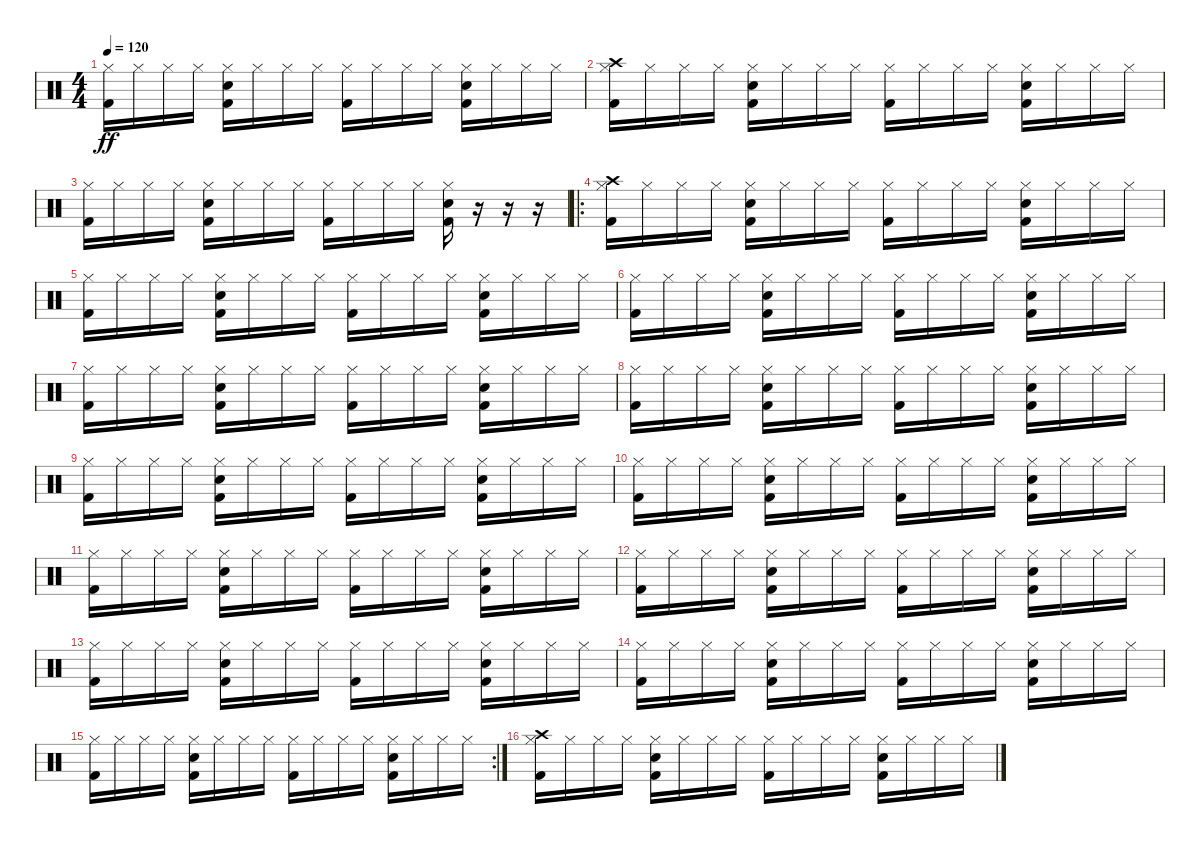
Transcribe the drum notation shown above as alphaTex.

\track "" {instrument percussion}
\staff {score}
\articulation defaults
\ts (4 4)
\tempo 120
\clef neutral
\ks c
("Hi-Hat (closed)" "Kick (hit) 2").16{dy ff} "Hi-Hat (closed)".16 "Hi-Hat (closed)".16 "Hi-Hat (closed)".16 ("Hi-Hat (closed)" "Electric Snare (hit)" "Kick (hit) 2").16 "Hi-Hat (closed)".16 "Hi-Hat (closed)".16 "Hi-Hat (closed)".16 ("Hi-Hat (closed)" "Kick (hit) 2").16 "Hi-Hat (closed)".16 "Hi-Hat (closed)".16 "Hi-Hat (closed)".16 ("Hi-Hat (closed)" "Electric Snare (hit)" "Kick (hit) 2").16 "Hi-Hat (closed)".16 "Hi-Hat (closed)".16 "Hi-Hat (closed)".16 |
("Crash high (hit)" "Hi-Hat (closed)" "Kick (hit) 2").16 "Hi-Hat (closed)".16 "Hi-Hat (closed)".16 "Hi-Hat (closed)".16 ("Hi-Hat (closed)" "Electric Snare (hit)" "Kick (hit) 2").16 "Hi-Hat (closed)".16 "Hi-Hat (closed)".16 "Hi-Hat (closed)".16 ("Hi-Hat (closed)" "Kick (hit) 2").16 "Hi-Hat (closed)".16 "Hi-Hat (closed)".16 "Hi-Hat (closed)".16 ("Hi-Hat (closed)" "Electric Snare (hit)" "Kick (hit) 2").16 "Hi-Hat (closed)".16 "Hi-Hat (closed)".16 "Hi-Hat (closed)".16 |
("Hi-Hat (closed)" "Kick (hit) 2").16 "Hi-Hat (closed)".16 "Hi-Hat (closed)".16 "Hi-Hat (closed)".16 ("Hi-Hat (closed)" "Electric Snare (hit)" "Kick (hit) 2").16 "Hi-Hat (closed)".16 "Hi-Hat (closed)".16 "Hi-Hat (closed)".16 ("Hi-Hat (closed)" "Kick (hit) 2").16 "Hi-Hat (closed)".16 "Hi-Hat (closed)".16 "Hi-Hat (closed)".16 ("Hi-Hat (closed)" "Electric Snare (hit)" "Kick (hit) 2").16 r.16 r.16 r.16 |
\ro
("Crash high (hit)" "Hi-Hat (closed)" "Kick (hit) 2").16 "Hi-Hat (closed)".16 "Hi-Hat (closed)".16 "Hi-Hat (closed)".16 ("Hi-Hat (closed)" "Electric Snare (hit)" "Kick (hit) 2").16 "Hi-Hat (closed)".16 "Hi-Hat (closed)".16 "Hi-Hat (closed)".16 ("Hi-Hat (closed)" "Kick (hit) 2").16 "Hi-Hat (closed)".16 "Hi-Hat (closed)".16 "Hi-Hat (closed)".16 ("Hi-Hat (closed)" "Electric Snare (hit)" "Kick (hit) 2").16 "Hi-Hat (closed)".16 "Hi-Hat (closed)".16 "Hi-Hat (closed)".16 |
("Hi-Hat (closed)" "Kick (hit) 2").16 "Hi-Hat (closed)".16 "Hi-Hat (closed)".16 "Hi-Hat (closed)".16 ("Hi-Hat (closed)" "Electric Snare (hit)" "Kick (hit) 2").16 "Hi-Hat (closed)".16 "Hi-Hat (closed)".16 "Hi-Hat (closed)".16 ("Hi-Hat (closed)" "Kick (hit) 2").16 "Hi-Hat (closed)".16 "Hi-Hat (closed)".16 "Hi-Hat (closed)".16 ("Hi-Hat (closed)" "Electric Snare (hit)" "Kick (hit) 2").16 "Hi-Hat (closed)".16 "Hi-Hat (closed)".16 "Hi-Hat (closed)".16 |
("Hi-Hat (closed)" "Kick (hit) 2").16 "Hi-Hat (closed)".16 "Hi-Hat (closed)".16 "Hi-Hat (closed)".16 ("Hi-Hat (closed)" "Electric Snare (hit)" "Kick (hit) 2").16 "Hi-Hat (closed)".16 "Hi-Hat (closed)".16 "Hi-Hat (closed)".16 ("Hi-Hat (closed)" "Kick (hit) 2").16 "Hi-Hat (closed)".16 "Hi-Hat (closed)".16 "Hi-Hat (closed)".16 ("Hi-Hat (closed)" "Electric Snare (hit)" "Kick (hit) 2").16 "Hi-Hat (closed)".16 "Hi-Hat (closed)".16 "Hi-Hat (closed)".16 |
("Hi-Hat (closed)" "Kick (hit) 2").16 "Hi-Hat (closed)".16 "Hi-Hat (closed)".16 "Hi-Hat (closed)".16 ("Hi-Hat (closed)" "Electric Snare (hit)" "Kick (hit) 2").16 "Hi-Hat (closed)".16 "Hi-Hat (closed)".16 "Hi-Hat (closed)".16 ("Hi-Hat (closed)" "Kick (hit) 2").16 "Hi-Hat (closed)".16 "Hi-Hat (closed)".16 "Hi-Hat (closed)".16 ("Hi-Hat (closed)" "Electric Snare (hit)" "Kick (hit) 2").16 "Hi-Hat (closed)".16 "Hi-Hat (closed)".16 "Hi-Hat (closed)".16 |
("Hi-Hat (closed)" "Kick (hit) 2").16 "Hi-Hat (closed)".16 "Hi-Hat (closed)".16 "Hi-Hat (closed)".16 ("Hi-Hat (closed)" "Electric Snare (hit)" "Kick (hit) 2").16 "Hi-Hat (closed)".16 "Hi-Hat (closed)".16 "Hi-Hat (closed)".16 ("Hi-Hat (closed)" "Kick (hit) 2").16 "Hi-Hat (closed)".16 "Hi-Hat (closed)".16 "Hi-Hat (closed)".16 ("Hi-Hat (closed)" "Electric Snare (hit)" "Kick (hit) 2").16 "Hi-Hat (closed)".16 "Hi-Hat (closed)".16 "Hi-Hat (closed)".16 |
("Hi-Hat (closed)" "Kick (hit) 2").16 "Hi-Hat (closed)".16 "Hi-Hat (closed)".16 "Hi-Hat (closed)".16 ("Hi-Hat (closed)" "Electric Snare (hit)" "Kick (hit) 2").16 "Hi-Hat (closed)".16 "Hi-Hat (closed)".16 "Hi-Hat (closed)".16 ("Hi-Hat (closed)" "Kick (hit) 2").16 "Hi-Hat (closed)".16 "Hi-Hat (closed)".16 "Hi-Hat (closed)".16 ("Hi-Hat (closed)" "Electric Snare (hit)" "Kick (hit) 2").16 "Hi-Hat (closed)".16 "Hi-Hat (closed)".16 "Hi-Hat (closed)".16 |
("Hi-Hat (closed)" "Kick (hit) 2").16 "Hi-Hat (closed)".16 "Hi-Hat (closed)".16 "Hi-Hat (closed)".16 ("Hi-Hat (closed)" "Electric Snare (hit)" "Kick (hit) 2").16 "Hi-Hat (closed)".16 "Hi-Hat (closed)".16 "Hi-Hat (closed)".16 ("Hi-Hat (closed)" "Kick (hit) 2").16 "Hi-Hat (closed)".16 "Hi-Hat (closed)".16 "Hi-Hat (closed)".16 ("Hi-Hat (closed)" "Electric Snare (hit)" "Kick (hit) 2").16 "Hi-Hat (closed)".16 "Hi-Hat (closed)".16 "Hi-Hat (closed)".16 |
("Hi-Hat (closed)" "Kick (hit) 2").16 "Hi-Hat (closed)".16 "Hi-Hat (closed)".16 "Hi-Hat (closed)".16 ("Hi-Hat (closed)" "Electric Snare (hit)" "Kick (hit) 2").16 "Hi-Hat (closed)".16 "Hi-Hat (closed)".16 "Hi-Hat (closed)".16 ("Hi-Hat (closed)" "Kick (hit) 2").16 "Hi-Hat (closed)".16 "Hi-Hat (closed)".16 "Hi-Hat (closed)".16 ("Hi-Hat (closed)" "Electric Snare (hit)" "Kick (hit) 2").16 "Hi-Hat (closed)".16 "Hi-Hat (closed)".16 "Hi-Hat (closed)".16 |
("Hi-Hat (closed)" "Kick (hit) 2").16 "Hi-Hat (closed)".16 "Hi-Hat (closed)".16 "Hi-Hat (closed)".16 ("Hi-Hat (closed)" "Electric Snare (hit)" "Kick (hit) 2").16 "Hi-Hat (closed)".16 "Hi-Hat (closed)".16 "Hi-Hat (closed)".16 ("Hi-Hat (closed)" "Kick (hit) 2").16 "Hi-Hat (closed)".16 "Hi-Hat (closed)".16 "Hi-Hat (closed)".16 ("Hi-Hat (closed)" "Electric Snare (hit)" "Kick (hit) 2").16 "Hi-Hat (closed)".16 "Hi-Hat (closed)".16 "Hi-Hat (closed)".16 |
("Hi-Hat (closed)" "Kick (hit) 2").16 "Hi-Hat (closed)".16 "Hi-Hat (closed)".16 "Hi-Hat (closed)".16 ("Hi-Hat (closed)" "Electric Snare (hit)" "Kick (hit) 2").16 "Hi-Hat (closed)".16 "Hi-Hat (closed)".16 "Hi-Hat (closed)".16 ("Hi-Hat (closed)" "Kick (hit) 2").16 "Hi-Hat (closed)".16 "Hi-Hat (closed)".16 "Hi-Hat (closed)".16 ("Hi-Hat (closed)" "Electric Snare (hit)" "Kick (hit) 2").16 "Hi-Hat (closed)".16 "Hi-Hat (closed)".16 "Hi-Hat (closed)".16 |
("Hi-Hat (closed)" "Kick (hit) 2").16 "Hi-Hat (closed)".16 "Hi-Hat (closed)".16 "Hi-Hat (closed)".16 ("Hi-Hat (closed)" "Electric Snare (hit)" "Kick (hit) 2").16 "Hi-Hat (closed)".16 "Hi-Hat (closed)".16 "Hi-Hat (closed)".16 ("Hi-Hat (closed)" "Kick (hit) 2").16 "Hi-Hat (closed)".16 "Hi-Hat (closed)".16 "Hi-Hat (closed)".16 ("Hi-Hat (closed)" "Electric Snare (hit)" "Kick (hit) 2").16 "Hi-Hat (closed)".16 "Hi-Hat (closed)".16 "Hi-Hat (closed)".16 |
\rc 2
("Hi-Hat (closed)" "Kick (hit) 2").16 "Hi-Hat (closed)".16 "Hi-Hat (closed)".16 "Hi-Hat (closed)".16 ("Hi-Hat (closed)" "Electric Snare (hit)" "Kick (hit) 2").16 "Hi-Hat (closed)".16 "Hi-Hat (closed)".16 "Hi-Hat (closed)".16 ("Hi-Hat (closed)" "Kick (hit) 2").16 "Hi-Hat (closed)".16 "Hi-Hat (closed)".16 "Hi-Hat (closed)".16 ("Hi-Hat (closed)" "Electric Snare (hit)" "Kick (hit) 2").16 "Hi-Hat (closed)".16 "Hi-Hat (closed)".16 "Hi-Hat (closed)".16 |
("Crash high (hit)" "Hi-Hat (closed)" "Kick (hit) 2").16 "Hi-Hat (closed)".16 "Hi-Hat (closed)".16 "Hi-Hat (closed)".16 ("Hi-Hat (closed)" "Electric Snare (hit)" "Kick (hit) 2").16 "Hi-Hat (closed)".16 "Hi-Hat (closed)".16 "Hi-Hat (closed)".16 ("Hi-Hat (closed)" "Kick (hit) 2").16 "Hi-Hat (closed)".16 "Hi-Hat (closed)".16 "Hi-Hat (closed)".16 ("Hi-Hat (closed)" "Electric Snare (hit)" "Kick (hit) 2").16 "Hi-Hat (closed)".16 "Hi-Hat (closed)".16 "Hi-Hat (closed)".16
